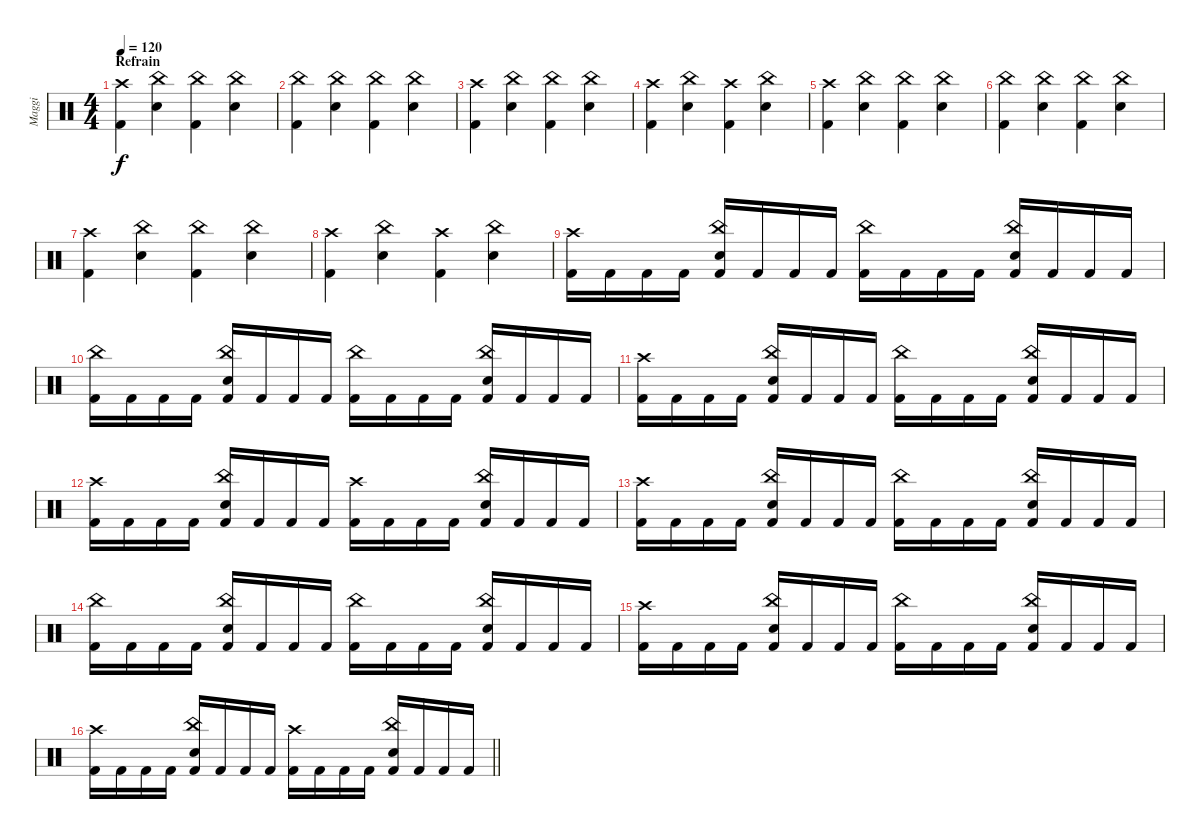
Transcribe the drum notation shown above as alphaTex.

\track ("Maggi" "Maggi") {instrument percussion}
\staff {score}
\articulation defaults
\ts (4 4)
\section ("" "Refrain")
\tempo 120
\clef neutral
\ks c
("Crash high (hit)" "Kick (hit) 2").4{dy f} ("China (hit)" "Snare (hit) 2").4 ("China (hit)" "Kick (hit) 2").4 ("China (hit)" "Snare (hit) 2").4 |
("China (hit)" "Kick (hit) 2").4 ("China (hit)" "Snare (hit) 2").4 ("China (hit)" "Kick (hit) 2").4 ("China (hit)" "Snare (hit) 2").4 |
("Crash high (hit)" "Kick (hit) 2").4 ("China (hit)" "Snare (hit) 2").4 ("China (hit)" "Kick (hit) 2").4 ("China (hit)" "Snare (hit) 2").4 |
("Crash high (hit)" "Kick (hit) 2").4 ("China (hit)" "Snare (hit) 2").4 ("Crash high (hit)" "Kick (hit) 2").4 ("China (hit)" "Snare (hit) 2").4 |
("Crash high (hit)" "Kick (hit) 2").4 ("China (hit)" "Snare (hit) 2").4 ("China (hit)" "Kick (hit) 2").4 ("China (hit)" "Snare (hit) 2").4 |
("China (hit)" "Kick (hit) 2").4 ("China (hit)" "Snare (hit) 2").4 ("China (hit)" "Kick (hit) 2").4 ("China (hit)" "Snare (hit) 2").4 |
("Crash high (hit)" "Kick (hit) 2").4 ("China (hit)" "Snare (hit) 2").4 ("China (hit)" "Kick (hit) 2").4 ("China (hit)" "Snare (hit) 2").4 |
("Crash high (hit)" "Kick (hit) 2").4 ("China (hit)" "Snare (hit) 2").4 ("Crash high (hit)" "Kick (hit) 2").4 ("China (hit)" "Snare (hit) 2").4 |
("Crash high (hit)" "Kick (hit) 2").16 "Kick (hit) 2".16 "Kick (hit) 2".16 "Kick (hit) 2".16 ("China (hit)" "Snare (hit) 2" "Kick (hit) 2").16 "Kick (hit) 2".16 "Kick (hit) 2".16 "Kick (hit) 2".16 ("China (hit)" "Kick (hit) 2").16 "Kick (hit) 2".16 "Kick (hit) 2".16 "Kick (hit) 2".16 ("China (hit)" "Snare (hit) 2" "Kick (hit) 2").16 "Kick (hit) 2".16 "Kick (hit) 2".16 "Kick (hit) 2".16 |
("China (hit)" "Kick (hit) 2").16 "Kick (hit) 2".16 "Kick (hit) 2".16 "Kick (hit) 2".16 ("China (hit)" "Snare (hit) 2" "Kick (hit) 2").16 "Kick (hit) 2".16 "Kick (hit) 2".16 "Kick (hit) 2".16 ("China (hit)" "Kick (hit) 2").16 "Kick (hit) 2".16 "Kick (hit) 2".16 "Kick (hit) 2".16 ("China (hit)" "Snare (hit) 2" "Kick (hit) 2").16 "Kick (hit) 2".16 "Kick (hit) 2".16 "Kick (hit) 2".16 |
("Crash high (hit)" "Kick (hit) 2").16 "Kick (hit) 2".16 "Kick (hit) 2".16 "Kick (hit) 2".16 ("China (hit)" "Snare (hit) 2" "Kick (hit) 2").16 "Kick (hit) 2".16 "Kick (hit) 2".16 "Kick (hit) 2".16 ("China (hit)" "Kick (hit) 2").16 "Kick (hit) 2".16 "Kick (hit) 2".16 "Kick (hit) 2".16 ("China (hit)" "Snare (hit) 2" "Kick (hit) 2").16 "Kick (hit) 2".16 "Kick (hit) 2".16 "Kick (hit) 2".16 |
("Crash high (hit)" "Kick (hit) 2").16 "Kick (hit) 2".16 "Kick (hit) 2".16 "Kick (hit) 2".16 ("China (hit)" "Snare (hit) 2" "Kick (hit) 2").16 "Kick (hit) 2".16 "Kick (hit) 2".16 "Kick (hit) 2".16 ("Crash high (hit)" "Kick (hit) 2").16 "Kick (hit) 2".16 "Kick (hit) 2".16 "Kick (hit) 2".16 ("China (hit)" "Snare (hit) 2" "Kick (hit) 2").16 "Kick (hit) 2".16 "Kick (hit) 2".16 "Kick (hit) 2".16 |
("Crash high (hit)" "Kick (hit) 2").16 "Kick (hit) 2".16 "Kick (hit) 2".16 "Kick (hit) 2".16 ("China (hit)" "Snare (hit) 2" "Kick (hit) 2").16 "Kick (hit) 2".16 "Kick (hit) 2".16 "Kick (hit) 2".16 ("China (hit)" "Kick (hit) 2").16 "Kick (hit) 2".16 "Kick (hit) 2".16 "Kick (hit) 2".16 ("China (hit)" "Snare (hit) 2" "Kick (hit) 2").16 "Kick (hit) 2".16 "Kick (hit) 2".16 "Kick (hit) 2".16 |
("China (hit)" "Kick (hit) 2").16 "Kick (hit) 2".16 "Kick (hit) 2".16 "Kick (hit) 2".16 ("China (hit)" "Snare (hit) 2" "Kick (hit) 2").16 "Kick (hit) 2".16 "Kick (hit) 2".16 "Kick (hit) 2".16 ("China (hit)" "Kick (hit) 2").16 "Kick (hit) 2".16 "Kick (hit) 2".16 "Kick (hit) 2".16 ("China (hit)" "Snare (hit) 2" "Kick (hit) 2").16 "Kick (hit) 2".16 "Kick (hit) 2".16 "Kick (hit) 2".16 |
("Crash high (hit)" "Kick (hit) 2").16 "Kick (hit) 2".16 "Kick (hit) 2".16 "Kick (hit) 2".16 ("China (hit)" "Snare (hit) 2" "Kick (hit) 2").16 "Kick (hit) 2".16 "Kick (hit) 2".16 "Kick (hit) 2".16 ("China (hit)" "Kick (hit) 2").16 "Kick (hit) 2".16 "Kick (hit) 2".16 "Kick (hit) 2".16 ("China (hit)" "Snare (hit) 2" "Kick (hit) 2").16 "Kick (hit) 2".16 "Kick (hit) 2".16 "Kick (hit) 2".16 |
\barLineRight lightlight
("Crash high (hit)" "Kick (hit) 2").16 "Kick (hit) 2".16 "Kick (hit) 2".16 "Kick (hit) 2".16 ("China (hit)" "Snare (hit) 2" "Kick (hit) 2").16 "Kick (hit) 2".16 "Kick (hit) 2".16 "Kick (hit) 2".16 ("Crash high (hit)" "Kick (hit) 2").16 "Kick (hit) 2".16 "Kick (hit) 2".16 "Kick (hit) 2".16 ("China (hit)" "Snare (hit) 2" "Kick (hit) 2").16 "Kick (hit) 2".16 "Kick (hit) 2".16 "Kick (hit) 2".16
